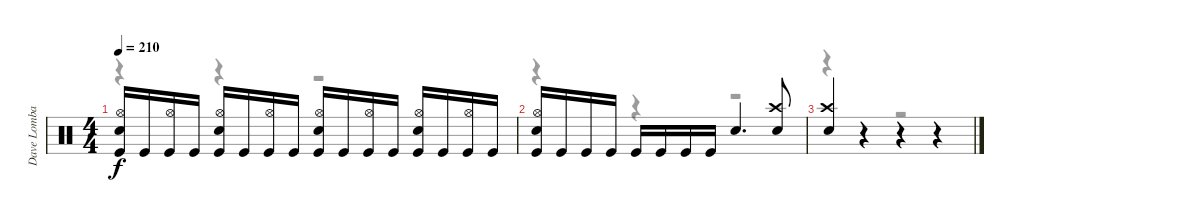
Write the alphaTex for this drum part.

\track ("Dave Lombardo" "Dave Lomba") {instrument percussion}
\staff {score}
\articulation defaults
\voice
\ts (4 4)
\tempo 210
\clef neutral
\ks c
("Hi-Hat (open)" "Snare (hit) 2" "Kick (hit)").16{dy f} "Kick (hit)".16 ("Hi-Hat (open)" "Kick (hit)").16 "Kick (hit)".16 ("Hi-Hat (open)" "Snare (hit) 2" "Kick (hit)").16 "Kick (hit)".16 ("Hi-Hat (open)" "Kick (hit)").16 "Kick (hit)".16 ("Hi-Hat (open)" "Snare (hit) 2" "Kick (hit)").16 "Kick (hit)".16 ("Hi-Hat (open)" "Kick (hit)").16 "Kick (hit)".16 ("Hi-Hat (open)" "Snare (hit) 2" "Kick (hit)").16 "Kick (hit)".16 ("Hi-Hat (open)" "Kick (hit)").16 "Kick (hit)".16 |
("Hi-Hat (open)" "Snare (hit) 2" "Kick (hit)").16 "Kick (hit)".16 "Kick (hit)".16 "Kick (hit)".16 "Kick (hit)".16 "Kick (hit)".16 "Kick (hit)".16 "Kick (hit)".16 "Snare (hit) 2".4{d} ("Crash high (hit)" "Snare (hit) 2").8 |
("Crash high (hit)" "Snare (hit) 2").4 r.4 r.4 r.4
\voice
\clef neutral
\ottava regular
\simile none
\ks c
r.4{dy f} r.4 r.2 |
r.4 r.4 r.2 |
r.4 r.4 r.2
